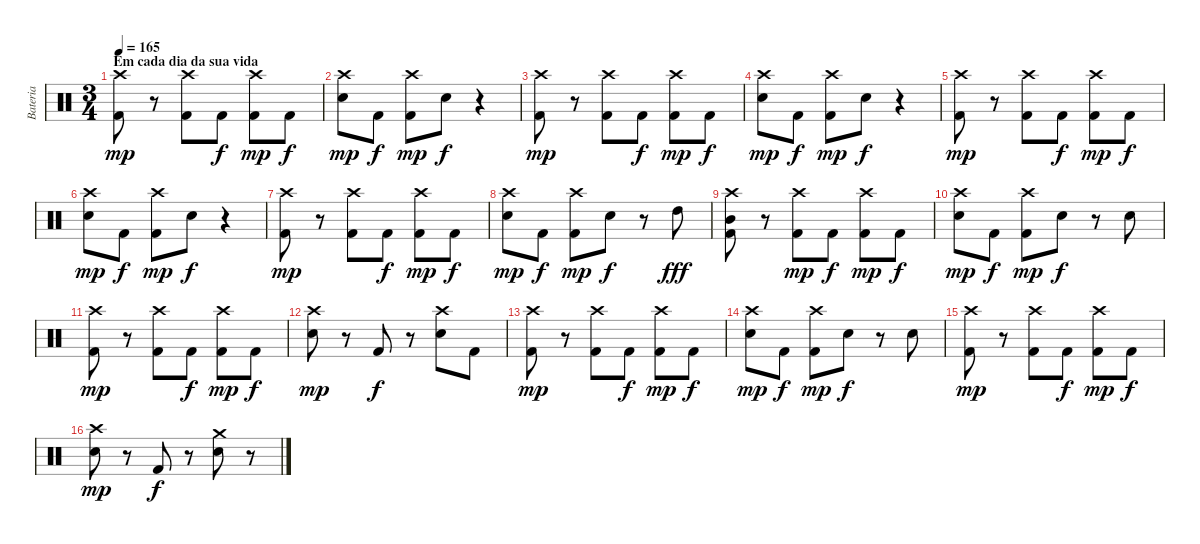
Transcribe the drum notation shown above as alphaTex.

\track ("Bateria" "Bateria") {instrument percussion}
\staff {score}
\articulation defaults
\ts (3 4)
\section ("" "Em cada dia da sua vida")
\tempo 165
\clef neutral
\ks c
("Crash high (hit)" "Kick (hit) 2").8{dy mp} r.8 ("Crash high (hit)" "Kick (hit) 2").8 "Kick (hit) 2".8{dy f} ("Crash high (hit)" "Kick (hit) 2").8{dy mp} "Kick (hit) 2".8{dy f} |
("Crash high (hit)" "Electric Snare (hit)").8{dy mp} "Kick (hit) 2".8{dy f} ("Crash high (hit)" "Kick (hit) 2").8{dy mp} "Electric Snare (hit)".8{dy f} r.4 |
("Crash high (hit)" "Kick (hit) 2").8{dy mp} r.8 ("Crash high (hit)" "Kick (hit) 2").8 "Kick (hit) 2".8{dy f} ("Crash high (hit)" "Kick (hit) 2").8{dy mp} "Kick (hit) 2".8{dy f} |
("Crash high (hit)" "Electric Snare (hit)").8{dy mp} "Kick (hit) 2".8{dy f} ("Crash high (hit)" "Kick (hit) 2").8{dy mp} "Electric Snare (hit)".8{dy f} r.4 |
("Crash high (hit)" "Kick (hit) 2").8{dy mp} r.8 ("Crash high (hit)" "Kick (hit) 2").8 "Kick (hit) 2".8{dy f} ("Crash high (hit)" "Kick (hit) 2").8{dy mp} "Kick (hit) 2".8{dy f} |
("Crash high (hit)" "Electric Snare (hit)").8{dy mp} "Kick (hit) 2".8{dy f} ("Crash high (hit)" "Kick (hit) 2").8{dy mp} "Electric Snare (hit)".8{dy f} r.4 |
("Crash high (hit)" "Kick (hit) 2").8{dy mp} r.8 ("Crash high (hit)" "Kick (hit) 2").8 "Kick (hit) 2".8{dy f} ("Crash high (hit)" "Kick (hit) 2").8{dy mp} "Kick (hit) 2".8{dy f} |
("Crash high (hit)" "Electric Snare (hit)").8{dy mp} "Kick (hit) 2".8{dy f} ("Crash high (hit)" "Kick (hit) 2").8{dy mp} "Electric Snare (hit)".8{dy f} r.8 "High Tom (hit)".8{dy fff} |
("Crash high (hit)" "Mid Tom (hit)" "Kick (hit) 2").8 r.8 ("Crash high (hit)" "Kick (hit) 2").8{dy mp} "Kick (hit) 2".8{dy f} ("Crash high (hit)" "Kick (hit) 2").8{dy mp} "Kick (hit) 2".8{dy f} |
("Crash high (hit)" "Electric Snare (hit)").8{dy mp} "Kick (hit) 2".8{dy f} ("Crash high (hit)" "Kick (hit) 2").8{dy mp} "Electric Snare (hit)".8{dy f} r.8 "Electric Snare (hit)".8 |
("Crash high (hit)" "Kick (hit) 2").8{dy mp} r.8 ("Crash high (hit)" "Kick (hit) 2").8 "Kick (hit) 2".8{dy f} ("Crash high (hit)" "Kick (hit) 2").8{dy mp} "Kick (hit) 2".8{dy f} |
("Crash high (hit)" "Electric Snare (hit)").8{dy mp} r.8 "Kick (hit) 2".8{dy f} r.8 ("Crash high (hit)" "Electric Snare (hit)").8 "Kick (hit) 2".8 |
("Crash high (hit)" "Kick (hit) 2").8{dy mp} r.8 ("Crash high (hit)" "Kick (hit) 2").8 "Kick (hit) 2".8{dy f} ("Crash high (hit)" "Kick (hit) 2").8{dy mp} "Kick (hit) 2".8{dy f} |
("Crash high (hit)" "Electric Snare (hit)").8{dy mp} "Kick (hit) 2".8{dy f} ("Crash high (hit)" "Kick (hit) 2").8{dy mp} "Electric Snare (hit)".8{dy f} r.8 "Electric Snare (hit)".8 |
("Crash high (hit)" "Kick (hit) 2").8{dy mp} r.8 ("Crash high (hit)" "Kick (hit) 2").8 "Kick (hit) 2".8{dy f} ("Crash high (hit)" "Kick (hit) 2").8{dy mp} "Kick (hit) 2".8{dy f} |
("Crash high (hit)" "Electric Snare (hit)").8{dy mp} r.8 "Kick (hit) 2".8{dy f} r.8 ("Crash medium (hit)" "Electric Snare (hit)").8 r.8
